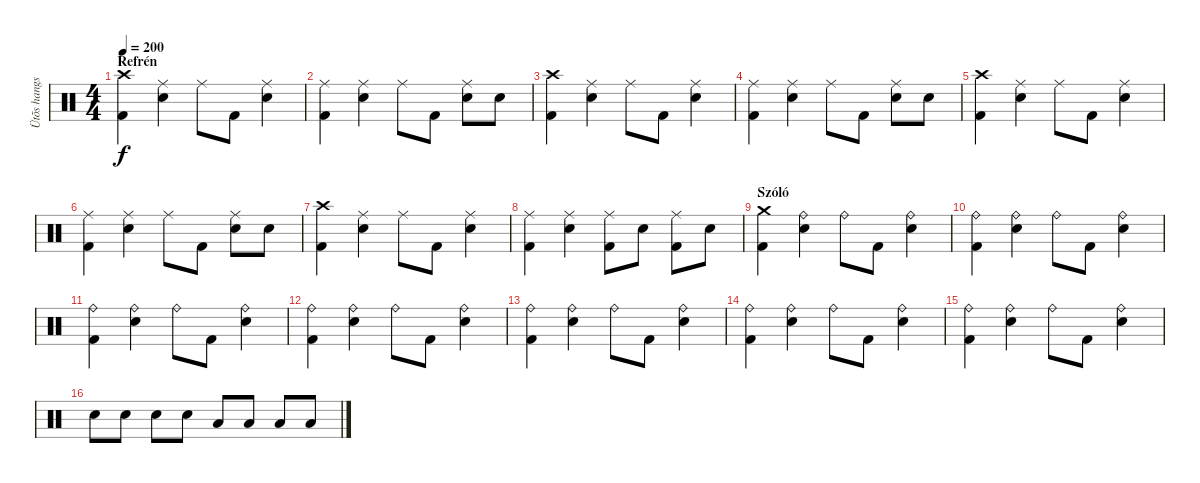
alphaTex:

\track ("Ütõs hangszer" "Ütõs hangs") {instrument percussion}
\staff {score}
\articulation defaults
\ts (4 4)
\section ("" "Refrén")
\tempo 200
\clef neutral
\ks c
("Crash high (hit)" "Kick (hit) 2").4{dy f} ("Ride (middle)" "Snare (hit) 2").4 "Ride (middle)".8 "Kick (hit) 2".8 ("Ride (middle)" "Snare (hit) 2").4 |
("Ride (middle)" "Kick (hit) 2").4 ("Ride (middle)" "Snare (hit) 2").4 "Ride (middle)".8 "Kick (hit) 2".8 ("Ride (middle)" "Snare (hit) 2").8 "Snare (hit) 2".8 |
("Crash high (hit)" "Kick (hit) 2").4 ("Ride (middle)" "Snare (hit) 2").4 "Ride (middle)".8 "Kick (hit) 2".8 ("Ride (middle)" "Snare (hit) 2").4 |
("Ride (middle)" "Kick (hit) 2").4 ("Ride (middle)" "Snare (hit) 2").4 "Ride (middle)".8 "Kick (hit) 2".8 ("Ride (middle)" "Snare (hit) 2").8 "Snare (hit) 2".8 |
("Crash high (hit)" "Kick (hit) 2").4 ("Ride (middle)" "Snare (hit) 2").4 "Ride (middle)".8 "Kick (hit) 2".8 ("Ride (middle)" "Snare (hit) 2").4 |
("Ride (middle)" "Kick (hit) 2").4 ("Ride (middle)" "Snare (hit) 2").4 "Ride (middle)".8 "Kick (hit) 2".8 ("Ride (middle)" "Snare (hit) 2").8 "Snare (hit) 2".8 |
("Crash high (hit)" "Kick (hit) 2").4 ("Ride (middle)" "Snare (hit) 2").4 "Ride (middle)".8 "Kick (hit) 2".8 ("Ride (middle)" "Snare (hit) 2").4 |
("Ride (middle)" "Kick (hit) 2").4 ("Ride (middle)" "Snare (hit) 2").4 ("Ride (middle)" "Kick (hit) 2").8 "Snare (hit) 2".8 ("Ride (middle)" "Kick (hit) 2").8 "Snare (hit) 2".8 |
\section ("" "Szóló")
("Crash medium (hit)" "Kick (hit) 2").4 ("Ride (bell)" "Snare (hit) 2").4 "Ride (bell)".8 "Kick (hit) 2".8 ("Ride (bell)" "Snare (hit) 2").4 |
("Ride (bell)" "Kick (hit) 2").4 ("Ride (bell)" "Snare (hit) 2").4 "Ride (bell)".8 "Kick (hit) 2".8 ("Ride (bell)" "Snare (hit) 2").4 |
("Ride (bell)" "Kick (hit) 2").4 ("Ride (bell)" "Snare (hit) 2").4 "Ride (bell)".8 "Kick (hit) 2".8 ("Ride (bell)" "Snare (hit) 2").4 |
("Ride (bell)" "Kick (hit) 2").4 ("Ride (bell)" "Snare (hit) 2").4 "Ride (bell)".8 "Kick (hit) 2".8 ("Ride (bell)" "Snare (hit) 2").4 |
("Ride (bell)" "Kick (hit) 2").4 ("Ride (bell)" "Snare (hit) 2").4 "Ride (bell)".8 "Kick (hit) 2".8 ("Ride (bell)" "Snare (hit) 2").4 |
("Ride (bell)" "Kick (hit) 2").4 ("Ride (bell)" "Snare (hit) 2").4 "Ride (bell)".8 "Kick (hit) 2".8 ("Ride (bell)" "Snare (hit) 2").4 |
("Ride (bell)" "Kick (hit) 2").4 ("Ride (bell)" "Snare (hit) 2").4 "Ride (bell)".8 "Kick (hit) 2".8 ("Ride (bell)" "Snare (hit) 2").4 |
"Snare (hit) 2".8 "Snare (hit) 2".8 "Snare (hit) 2".8 "Snare (hit) 2".8 "Low Tom (hit)".8 "Low Tom (hit)".8 "Low Tom (hit)".8 "Low Tom (hit)".8
